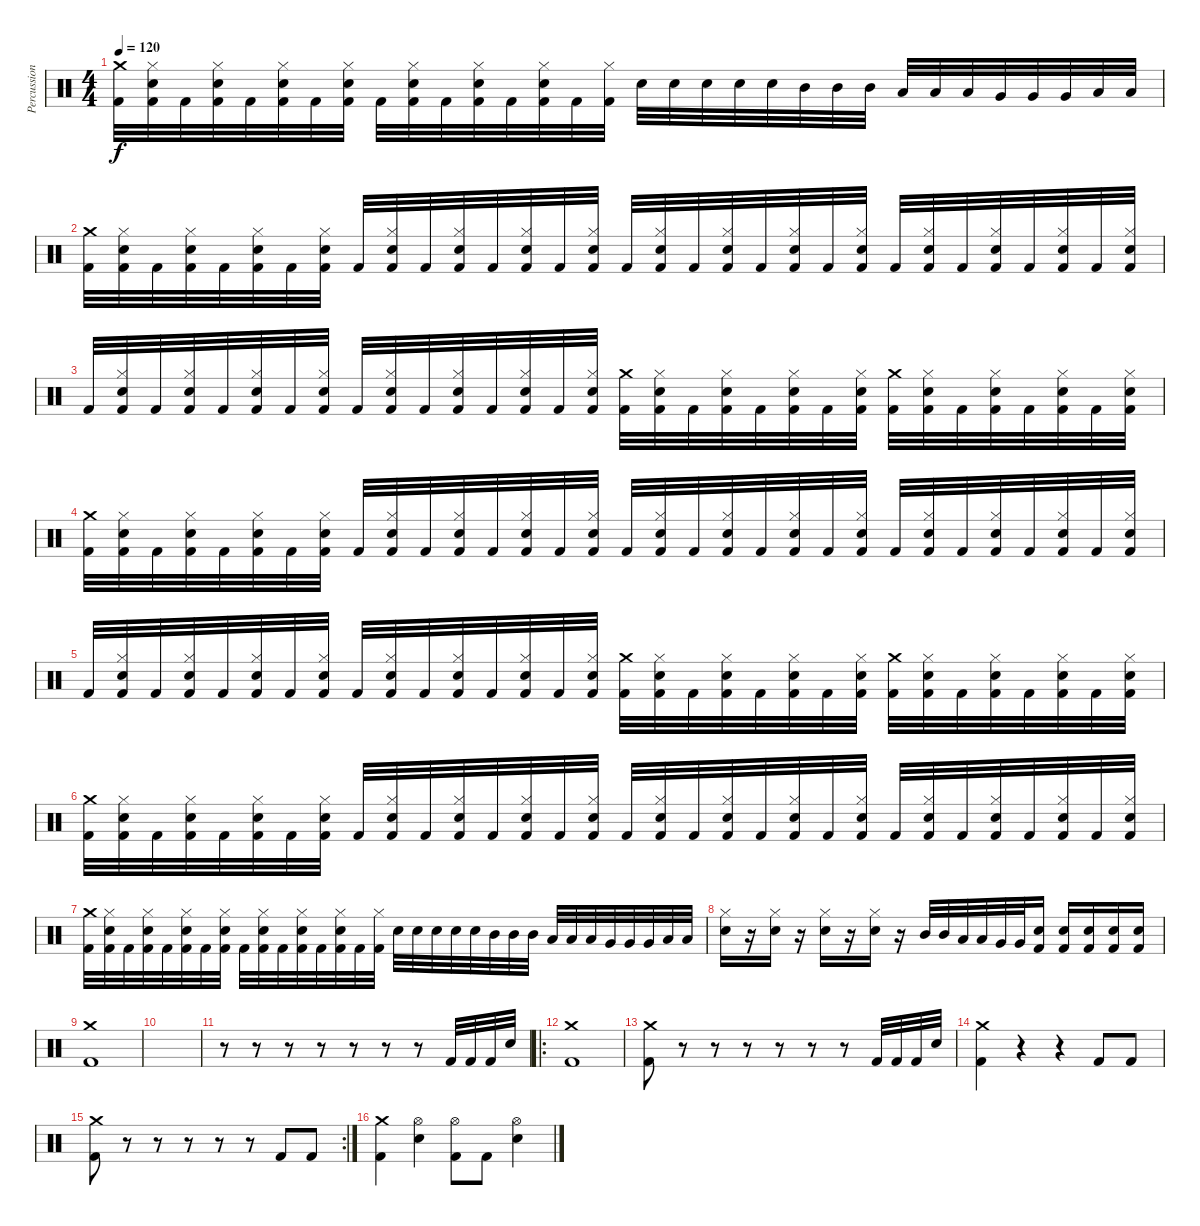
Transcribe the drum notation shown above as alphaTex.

\track ("Percussion" "Percussion") {instrument percussion}
\staff {score}
\articulation defaults
\ts (4 4)
\tempo 120
\clef neutral
\ks c
("Crash medium (hit)" "Kick (hit) 2").32{dy f} ("Hi-Hat (closed)" "Snare (hit) 2" "Kick (hit) 2").32 "Kick (hit) 2".32 ("Hi-Hat (closed)" "Snare (hit) 2" "Kick (hit) 2").32 "Kick (hit) 2".32 ("Hi-Hat (closed)" "Snare (hit) 2" "Kick (hit) 2").32 "Kick (hit) 2".32 ("Hi-Hat (closed)" "Snare (hit) 2" "Kick (hit) 2").32 "Kick (hit) 2".32 ("Hi-Hat (closed)" "Snare (hit) 2" "Kick (hit) 2").32 "Kick (hit) 2".32 ("Hi-Hat (closed)" "Snare (hit) 2" "Kick (hit) 2").32 "Kick (hit) 2".32 ("Hi-Hat (closed)" "Snare (hit) 2" "Kick (hit) 2").32 "Kick (hit) 2".32 ("Hi-Hat (closed)" "Kick (hit) 2").32 "Snare (hit) 2".32 "Snare (hit) 2".32 "Snare (hit) 2".32 "Snare (hit) 2".32 "Snare (hit) 2".32 "Mid Tom (hit)".32 "Mid Tom (hit)".32 "Mid Tom (hit)".32 "Low Tom (hit)".32 "Low Tom (hit)".32 "Low Tom (hit)".32 "Very Low Tom (hit)".32 "Very Low Tom (hit)".32 "Very Low Tom (hit)".32 "Low Floor Tom (hit)".32 "Low Floor Tom (hit)".32 |
("Crash medium (hit)" "Kick (hit) 2").32 ("Hi-Hat (closed)" "Snare (hit) 2" "Kick (hit) 2").32 "Kick (hit) 2".32 ("Hi-Hat (closed)" "Snare (hit) 2" "Kick (hit) 2").32 "Kick (hit) 2".32 ("Hi-Hat (closed)" "Snare (hit) 2" "Kick (hit) 2").32 "Kick (hit) 2".32 ("Hi-Hat (closed)" "Snare (hit) 2" "Kick (hit) 2").32 "Kick (hit) 2".32 ("Hi-Hat (closed)" "Snare (hit) 2" "Kick (hit) 2").32 "Kick (hit) 2".32 ("Hi-Hat (closed)" "Snare (hit) 2" "Kick (hit) 2").32 "Kick (hit) 2".32 ("Hi-Hat (closed)" "Snare (hit) 2" "Kick (hit) 2").32 "Kick (hit) 2".32 ("Hi-Hat (closed)" "Snare (hit) 2" "Kick (hit) 2").32 "Kick (hit) 2".32 ("Hi-Hat (closed)" "Snare (hit) 2" "Kick (hit) 2").32 "Kick (hit) 2".32 ("Hi-Hat (closed)" "Snare (hit) 2" "Kick (hit) 2").32 "Kick (hit) 2".32 ("Hi-Hat (closed)" "Snare (hit) 2" "Kick (hit) 2").32 "Kick (hit) 2".32 ("Hi-Hat (closed)" "Snare (hit) 2" "Kick (hit) 2").32 "Kick (hit) 2".32 ("Hi-Hat (closed)" "Snare (hit) 2" "Kick (hit) 2").32 "Kick (hit) 2".32 ("Hi-Hat (closed)" "Snare (hit) 2" "Kick (hit) 2").32 "Kick (hit) 2".32 ("Hi-Hat (closed)" "Snare (hit) 2" "Kick (hit) 2").32 "Kick (hit) 2".32 ("Hi-Hat (closed)" "Snare (hit) 2" "Kick (hit) 2").32 |
"Kick (hit) 2".32 ("Hi-Hat (closed)" "Snare (hit) 2" "Kick (hit) 2").32 "Kick (hit) 2".32 ("Hi-Hat (closed)" "Snare (hit) 2" "Kick (hit) 2").32 "Kick (hit) 2".32 ("Hi-Hat (closed)" "Snare (hit) 2" "Kick (hit) 2").32 "Kick (hit) 2".32 ("Hi-Hat (closed)" "Snare (hit) 2" "Kick (hit) 2").32 "Kick (hit) 2".32 ("Hi-Hat (closed)" "Snare (hit) 2" "Kick (hit) 2").32 "Kick (hit) 2".32 ("Hi-Hat (closed)" "Snare (hit) 2" "Kick (hit) 2").32 "Kick (hit) 2".32 ("Hi-Hat (closed)" "Snare (hit) 2" "Kick (hit) 2").32 "Kick (hit) 2".32 ("Hi-Hat (closed)" "Snare (hit) 2" "Kick (hit) 2").32 ("Crash medium (hit)" "Kick (hit) 2").32 ("Hi-Hat (closed)" "Snare (hit) 2" "Kick (hit) 2").32 "Kick (hit) 2".32 ("Hi-Hat (closed)" "Snare (hit) 2" "Kick (hit) 2").32 "Kick (hit) 2".32 ("Hi-Hat (closed)" "Snare (hit) 2" "Kick (hit) 2").32 "Kick (hit) 2".32 ("Hi-Hat (closed)" "Snare (hit) 2" "Kick (hit) 2").32 ("Crash medium (hit)" "Kick (hit) 2").32 ("Hi-Hat (closed)" "Snare (hit) 2" "Kick (hit) 2").32 "Kick (hit) 2".32 ("Hi-Hat (closed)" "Snare (hit) 2" "Kick (hit) 2").32 "Kick (hit) 2".32 ("Hi-Hat (closed)" "Snare (hit) 2" "Kick (hit) 2").32 "Kick (hit) 2".32 ("Hi-Hat (closed)" "Snare (hit) 2" "Kick (hit) 2").32 |
("Crash medium (hit)" "Kick (hit) 2").32 ("Hi-Hat (closed)" "Snare (hit) 2" "Kick (hit) 2").32 "Kick (hit) 2".32 ("Hi-Hat (closed)" "Snare (hit) 2" "Kick (hit) 2").32 "Kick (hit) 2".32 ("Hi-Hat (closed)" "Snare (hit) 2" "Kick (hit) 2").32 "Kick (hit) 2".32 ("Hi-Hat (closed)" "Snare (hit) 2" "Kick (hit) 2").32 "Kick (hit) 2".32 ("Hi-Hat (closed)" "Snare (hit) 2" "Kick (hit) 2").32 "Kick (hit) 2".32 ("Hi-Hat (closed)" "Snare (hit) 2" "Kick (hit) 2").32 "Kick (hit) 2".32 ("Hi-Hat (closed)" "Snare (hit) 2" "Kick (hit) 2").32 "Kick (hit) 2".32 ("Hi-Hat (closed)" "Snare (hit) 2" "Kick (hit) 2").32 "Kick (hit) 2".32 ("Hi-Hat (closed)" "Snare (hit) 2" "Kick (hit) 2").32 "Kick (hit) 2".32 ("Hi-Hat (closed)" "Snare (hit) 2" "Kick (hit) 2").32 "Kick (hit) 2".32 ("Hi-Hat (closed)" "Snare (hit) 2" "Kick (hit) 2").32 "Kick (hit) 2".32 ("Hi-Hat (closed)" "Snare (hit) 2" "Kick (hit) 2").32 "Kick (hit) 2".32 ("Hi-Hat (closed)" "Snare (hit) 2" "Kick (hit) 2").32 "Kick (hit) 2".32 ("Hi-Hat (closed)" "Snare (hit) 2" "Kick (hit) 2").32 "Kick (hit) 2".32 ("Hi-Hat (closed)" "Snare (hit) 2" "Kick (hit) 2").32 "Kick (hit) 2".32 ("Hi-Hat (closed)" "Snare (hit) 2" "Kick (hit) 2").32 |
"Kick (hit) 2".32 ("Hi-Hat (closed)" "Snare (hit) 2" "Kick (hit) 2").32 "Kick (hit) 2".32 ("Hi-Hat (closed)" "Snare (hit) 2" "Kick (hit) 2").32 "Kick (hit) 2".32 ("Hi-Hat (closed)" "Snare (hit) 2" "Kick (hit) 2").32 "Kick (hit) 2".32 ("Hi-Hat (closed)" "Snare (hit) 2" "Kick (hit) 2").32 "Kick (hit) 2".32 ("Hi-Hat (closed)" "Snare (hit) 2" "Kick (hit) 2").32 "Kick (hit) 2".32 ("Hi-Hat (closed)" "Snare (hit) 2" "Kick (hit) 2").32 "Kick (hit) 2".32 ("Hi-Hat (closed)" "Snare (hit) 2" "Kick (hit) 2").32 "Kick (hit) 2".32 ("Hi-Hat (closed)" "Snare (hit) 2" "Kick (hit) 2").32 ("Crash medium (hit)" "Kick (hit) 2").32 ("Hi-Hat (closed)" "Snare (hit) 2" "Kick (hit) 2").32 "Kick (hit) 2".32 ("Hi-Hat (closed)" "Snare (hit) 2" "Kick (hit) 2").32 "Kick (hit) 2".32 ("Hi-Hat (closed)" "Snare (hit) 2" "Kick (hit) 2").32 "Kick (hit) 2".32 ("Hi-Hat (closed)" "Snare (hit) 2" "Kick (hit) 2").32 ("Crash medium (hit)" "Kick (hit) 2").32 ("Hi-Hat (closed)" "Snare (hit) 2" "Kick (hit) 2").32 "Kick (hit) 2".32 ("Hi-Hat (closed)" "Snare (hit) 2" "Kick (hit) 2").32 "Kick (hit) 2".32 ("Hi-Hat (closed)" "Snare (hit) 2" "Kick (hit) 2").32 "Kick (hit) 2".32 ("Hi-Hat (closed)" "Snare (hit) 2" "Kick (hit) 2").32 |
("Crash medium (hit)" "Kick (hit) 2").32 ("Hi-Hat (closed)" "Snare (hit) 2" "Kick (hit) 2").32 "Kick (hit) 2".32 ("Hi-Hat (closed)" "Snare (hit) 2" "Kick (hit) 2").32 "Kick (hit) 2".32 ("Hi-Hat (closed)" "Snare (hit) 2" "Kick (hit) 2").32 "Kick (hit) 2".32 ("Hi-Hat (closed)" "Snare (hit) 2" "Kick (hit) 2").32 "Kick (hit) 2".32 ("Hi-Hat (closed)" "Snare (hit) 2" "Kick (hit) 2").32 "Kick (hit) 2".32 ("Hi-Hat (closed)" "Snare (hit) 2" "Kick (hit) 2").32 "Kick (hit) 2".32 ("Hi-Hat (closed)" "Snare (hit) 2" "Kick (hit) 2").32 "Kick (hit) 2".32 ("Hi-Hat (closed)" "Snare (hit) 2" "Kick (hit) 2").32 "Kick (hit) 2".32 ("Hi-Hat (closed)" "Snare (hit) 2" "Kick (hit) 2").32 "Kick (hit) 2".32 ("Hi-Hat (closed)" "Snare (hit) 2" "Kick (hit) 2").32 "Kick (hit) 2".32 ("Hi-Hat (closed)" "Snare (hit) 2" "Kick (hit) 2").32 "Kick (hit) 2".32 ("Hi-Hat (closed)" "Snare (hit) 2" "Kick (hit) 2").32 "Kick (hit) 2".32 ("Hi-Hat (closed)" "Snare (hit) 2" "Kick (hit) 2").32 "Kick (hit) 2".32 ("Hi-Hat (closed)" "Snare (hit) 2" "Kick (hit) 2").32 "Kick (hit) 2".32 ("Hi-Hat (closed)" "Snare (hit) 2" "Kick (hit) 2").32 "Kick (hit) 2".32 ("Hi-Hat (closed)" "Snare (hit) 2" "Kick (hit) 2").32 |
("Crash medium (hit)" "Kick (hit) 2").32 ("Hi-Hat (closed)" "Snare (hit) 2" "Kick (hit) 2").32 "Kick (hit) 2".32 ("Hi-Hat (closed)" "Snare (hit) 2" "Kick (hit) 2").32 "Kick (hit) 2".32 ("Hi-Hat (closed)" "Snare (hit) 2" "Kick (hit) 2").32 "Kick (hit) 2".32 ("Hi-Hat (closed)" "Snare (hit) 2" "Kick (hit) 2").32 "Kick (hit) 2".32 ("Hi-Hat (closed)" "Snare (hit) 2" "Kick (hit) 2").32 "Kick (hit) 2".32 ("Hi-Hat (closed)" "Snare (hit) 2" "Kick (hit) 2").32 "Kick (hit) 2".32 ("Hi-Hat (closed)" "Snare (hit) 2" "Kick (hit) 2").32 "Kick (hit) 2".32 ("Hi-Hat (closed)" "Kick (hit) 2").32 "Snare (hit) 2".32 "Snare (hit) 2".32 "Snare (hit) 2".32 "Snare (hit) 2".32 "Snare (hit) 2".32 "Mid Tom (hit)".32 "Mid Tom (hit)".32 "Mid Tom (hit)".32 "Low Tom (hit)".32 "Low Tom (hit)".32 "Low Tom (hit)".32 "Very Low Tom (hit)".32 "Very Low Tom (hit)".32 "Very Low Tom (hit)".32 "Low Floor Tom (hit)".32 "Low Floor Tom (hit)".32 |
("Hi-Hat (closed)" "Snare (hit) 2").16 r.16 ("Hi-Hat (closed)" "Snare (hit) 2").16 r.16 ("Hi-Hat (closed)" "Snare (hit) 2").16 r.16 ("Hi-Hat (closed)" "Snare (hit) 2").16 r.16 "Mid Tom (hit)".32 "Mid Tom (hit)".32 "Low Tom (hit)".32 "Low Tom (hit)".32 "Very Low Tom (hit)".32 "Very Low Tom (hit)".32 ("Snare (hit) 2" "Kick (hit) 2").16 ("Snare (hit) 2" "Kick (hit) 2").16 ("Snare (hit) 2" "Kick (hit) 2").16 ("Snare (hit) 2" "Kick (hit) 2").16 ("Snare (hit) 2" "Kick (hit) 2").16 |
("Crash medium (hit)" "Kick (hit) 2").1 |
|
r.8 r.8 r.8 r.8 r.8 r.8 r.8 "Kick (hit) 2".32 "Kick (hit) 2".32 "Kick (hit) 2".32 "Snare (hit) 2".32 |
\ro
("Crash medium (hit)" "Kick (hit) 2").1 |
("Crash medium (hit)" "Kick (hit) 2").8 r.8 r.8 r.8 r.8 r.8 r.8 "Kick (hit) 2".32 "Kick (hit) 2".32 "Kick (hit) 2".32 "Snare (hit) 2".32 |
("Crash medium (hit)" "Kick (hit) 2").4 r.4 r.4 "Kick (hit) 2".8 "Kick (hit) 2".8 |
\rc 2
("Crash medium (hit)" "Kick (hit) 2").8 r.8 r.8 r.8 r.8 r.8 "Kick (hit) 2".8 "Kick (hit) 2".8 |
("Crash medium (hit)" "Kick (hit) 2").4 ("Hi-Hat (open)" "Snare (hit) 2").4 ("Hi-Hat (open)" "Kick (hit) 2").8 "Kick (hit) 2".8 ("Hi-Hat (open)" "Snare (hit) 2").4
